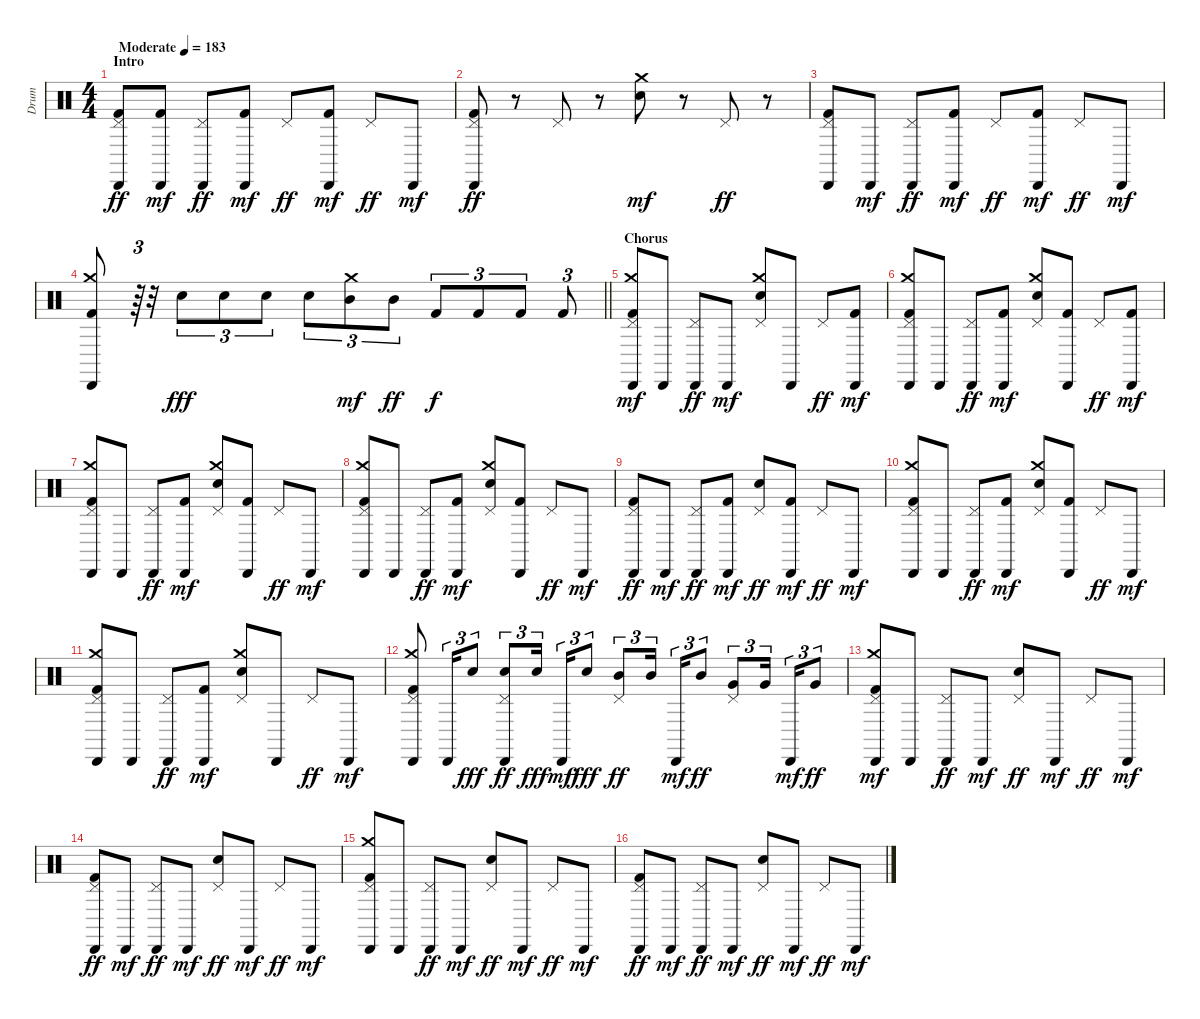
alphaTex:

\track ("Drum" "Drum") {instrument percussion}
\staff {score}
\articulation defaults
\ts (4 4)
\section ("" "Intro")
\tempo (183 "Moderate")
\clef neutral
\ks c
("Cabasa (hit)" "Kick (hit) 2" "Pedal Hi-Hat (hit)").8{dy ff} ("Cabasa (hit)" "Kick (hit) 2").8{dy mf} ("Cabasa (hit)" "Pedal Hi-Hat (hit)").8{dy ff} ("Cabasa (hit)" "Kick (hit) 2").8{dy mf} "Pedal Hi-Hat (hit)".8{dy ff} ("Cabasa (hit)" "Kick (hit) 2").8{dy mf} "Pedal Hi-Hat (hit)".8{dy ff} "Cabasa (hit)".8{dy mf} |
("Cabasa (hit)" "Kick (hit) 2" "Pedal Hi-Hat (hit)").8{dy ff} r.8 "Pedal Hi-Hat (hit)".8 r.8 ("Electric Snare (hit)" "Crash medium (hit)").8{dy mf} r.8 "Pedal Hi-Hat (hit)".8{dy ff} r.8 |
("Cabasa (hit)" "Kick (hit) 2" "Pedal Hi-Hat (hit)").8 "Cabasa (hit)".8{dy mf} ("Cabasa (hit)" "Pedal Hi-Hat (hit)").8{dy ff} ("Cabasa (hit)" "Kick (hit) 2").8{dy mf} "Pedal Hi-Hat (hit)".8{dy ff} ("Cabasa (hit)" "Kick (hit) 2").8{dy mf} "Pedal Hi-Hat (hit)".8{dy ff} "Cabasa (hit)".8{dy mf} |
\barLineRight lightlight
("Cabasa (hit)" "Kick (hit) 2" "Crash medium (hit)").8 r.64{tu (3 2)} r.32 "Electric Snare (hit)".8{tu (3 2) dy fff} "Electric Snare (hit)".8{tu (3 2)} "Electric Snare (hit)".8{tu (3 2)} "Electric Snare (hit)".8{tu (3 2)} ("Mid Tom (hit)" "Crash medium (hit)").8{tu (3 2) dy mf} "Mid Tom (hit)".8{tu (3 2) dy ff} "Kick (hit) 2".8{tu (3 2) dy f} "Kick (hit) 2".8{tu (3 2)} "Kick (hit) 2".8{tu (3 2)} "Kick (hit) 2".8{tu (3 2)} |
\section ("" "Chorus")
("Cabasa (hit)" "Kick (hit) 2" "Pedal Hi-Hat (hit)" "Crash medium (hit)").8{dy mf} "Cabasa (hit)".8 ("Cabasa (hit)" "Pedal Hi-Hat (hit)").8{dy ff} "Cabasa (hit)".8{dy mf} ("Electric Snare (hit)" "Pedal Hi-Hat (hit)" "Crash medium (hit)").8 "Cabasa (hit)".8 "Pedal Hi-Hat (hit)".8{dy ff} ("Cabasa (hit)" "Kick (hit) 2").8{dy mf} |
("Cabasa (hit)" "Kick (hit) 2" "Pedal Hi-Hat (hit)" "Crash medium (hit)").8 "Cabasa (hit)".8 ("Cabasa (hit)" "Pedal Hi-Hat (hit)").8{dy ff} ("Cabasa (hit)" "Kick (hit) 2").8{dy mf} ("Electric Snare (hit)" "Pedal Hi-Hat (hit)" "Crash medium (hit)").8 ("Cabasa (hit)" "Kick (hit) 2").8 "Pedal Hi-Hat (hit)".8{dy ff} ("Cabasa (hit)" "Kick (hit) 2").8{dy mf} |
("Cabasa (hit)" "Kick (hit) 2" "Pedal Hi-Hat (hit)" "Crash medium (hit)").8 "Cabasa (hit)".8 ("Cabasa (hit)" "Pedal Hi-Hat (hit)").8{dy ff} ("Cabasa (hit)" "Kick (hit) 2").8{dy mf} ("Electric Snare (hit)" "Pedal Hi-Hat (hit)" "Crash medium (hit)").8 ("Cabasa (hit)" "Kick (hit) 2").8 "Pedal Hi-Hat (hit)".8{dy ff} "Cabasa (hit)".8{dy mf} |
("Cabasa (hit)" "Kick (hit) 2" "Pedal Hi-Hat (hit)" "Crash medium (hit)").8 "Cabasa (hit)".8 ("Cabasa (hit)" "Pedal Hi-Hat (hit)").8{dy ff} ("Cabasa (hit)" "Kick (hit) 2").8{dy mf} ("Electric Snare (hit)" "Pedal Hi-Hat (hit)" "Crash medium (hit)").8 ("Cabasa (hit)" "Kick (hit) 2").8 "Pedal Hi-Hat (hit)".8{dy ff} "Cabasa (hit)".8{dy mf} |
("Cabasa (hit)" "Kick (hit) 2" "Pedal Hi-Hat (hit)").8{dy ff} "Cabasa (hit)".8{dy mf} ("Cabasa (hit)" "Pedal Hi-Hat (hit)").8{dy ff} ("Cabasa (hit)" "Kick (hit) 2").8{dy mf} ("Electric Snare (hit)" "Pedal Hi-Hat (hit)").8{dy ff} ("Cabasa (hit)" "Kick (hit) 2").8{dy mf} "Pedal Hi-Hat (hit)".8{dy ff} "Cabasa (hit)".8{dy mf} |
("Cabasa (hit)" "Kick (hit) 2" "Pedal Hi-Hat (hit)" "Crash medium (hit)").8 "Cabasa (hit)".8 ("Cabasa (hit)" "Pedal Hi-Hat (hit)").8{dy ff} ("Cabasa (hit)" "Kick (hit) 2").8{dy mf} ("Electric Snare (hit)" "Pedal Hi-Hat (hit)" "Crash medium (hit)").8 ("Cabasa (hit)" "Kick (hit) 2").8 "Pedal Hi-Hat (hit)".8{dy ff} "Cabasa (hit)".8{dy mf} |
("Cabasa (hit)" "Kick (hit) 2" "Pedal Hi-Hat (hit)" "Crash medium (hit)").8 "Cabasa (hit)".8 ("Cabasa (hit)" "Pedal Hi-Hat (hit)").8{dy ff} ("Cabasa (hit)" "Kick (hit) 2").8{dy mf} ("Electric Snare (hit)" "Pedal Hi-Hat (hit)" "Crash medium (hit)").8 "Cabasa (hit)".8 "Pedal Hi-Hat (hit)".8{dy ff} "Cabasa (hit)".8{dy mf} |
("Cabasa (hit)" "Kick (hit) 2" "Pedal Hi-Hat (hit)" "Crash medium (hit)").8 "Cabasa (hit)".16{tu (3 2)} "Electric Snare (hit)".8{tu (3 2) dy fff} ("Cabasa (hit)" "Electric Snare (hit)" "Pedal Hi-Hat (hit)").8{tu (3 2) dy ff} "Electric Snare (hit)".16{tu (3 2) dy fff beam splitsecondary} "Cabasa (hit)".16{tu (3 2) dy mf} "Electric Snare (hit)".8{tu (3 2) dy fff} ("Mid Tom (hit)" "Pedal Hi-Hat (hit)").8{tu (3 2) dy ff} "Mid Tom (hit)".16{tu (3 2) beam splitsecondary} "Cabasa (hit)".16{tu (3 2) dy mf} "Mid Tom (hit)".8{tu (3 2) dy ff} ("Very Low Tom (hit)" "Pedal Hi-Hat (hit)").8{tu (3 2)} "Very Low Tom (hit)".16{tu (3 2) beam splitsecondary} "Cabasa (hit)".16{tu (3 2) dy mf} "Very Low Tom (hit)".8{tu (3 2) dy ff} |
("Cabasa (hit)" "Kick (hit) 2" "Pedal Hi-Hat (hit)" "Crash medium (hit)").8{dy mf} "Cabasa (hit)".8 ("Cabasa (hit)" "Pedal Hi-Hat (hit)").8{dy ff} "Cabasa (hit)".8{dy mf} ("Electric Snare (hit)" "Pedal Hi-Hat (hit)").8{dy ff} "Cabasa (hit)".8{dy mf} "Pedal Hi-Hat (hit)".8{dy ff} "Cabasa (hit)".8{dy mf} |
("Cabasa (hit)" "Kick (hit) 2" "Pedal Hi-Hat (hit)").8{dy ff} "Cabasa (hit)".8{dy mf} ("Cabasa (hit)" "Pedal Hi-Hat (hit)").8{dy ff} "Cabasa (hit)".8{dy mf} ("Electric Snare (hit)" "Pedal Hi-Hat (hit)").8{dy ff} "Cabasa (hit)".8{dy mf} "Pedal Hi-Hat (hit)".8{dy ff} "Cabasa (hit)".8{dy mf} |
("Cabasa (hit)" "Kick (hit) 2" "Pedal Hi-Hat (hit)" "Crash medium (hit)").8 "Cabasa (hit)".8 ("Cabasa (hit)" "Pedal Hi-Hat (hit)").8{dy ff} "Cabasa (hit)".8{dy mf} ("Electric Snare (hit)" "Pedal Hi-Hat (hit)").8{dy ff} "Cabasa (hit)".8{dy mf} "Pedal Hi-Hat (hit)".8{dy ff} "Cabasa (hit)".8{dy mf} |
("Cabasa (hit)" "Kick (hit) 2" "Pedal Hi-Hat (hit)").8{dy ff} "Cabasa (hit)".8{dy mf} ("Cabasa (hit)" "Pedal Hi-Hat (hit)").8{dy ff} "Cabasa (hit)".8{dy mf} ("Electric Snare (hit)" "Pedal Hi-Hat (hit)").8{dy ff} "Cabasa (hit)".8{dy mf} "Pedal Hi-Hat (hit)".8{dy ff} "Cabasa (hit)".8{dy mf}
